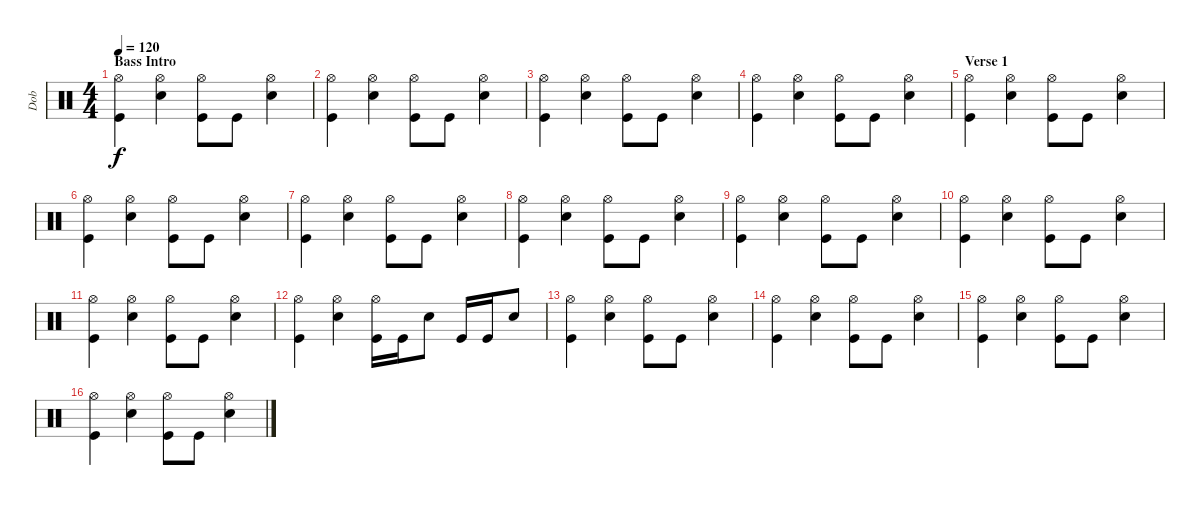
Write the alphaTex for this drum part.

\track ("Dob" "Dob") {instrument percussion}
\staff {score}
\articulation defaults
\ts (4 4)
\section ("" "Bass Intro")
\tempo 120
\clef neutral
\ks c
("Hi-Hat (open)" "Kick (hit)").4{dy f} ("Hi-Hat (open)" "Snare (hit) 2").4 ("Hi-Hat (open)" "Kick (hit)").8 "Kick (hit)".8 ("Hi-Hat (open)" "Snare (hit) 2").4 |
("Hi-Hat (open)" "Kick (hit)").4 ("Hi-Hat (open)" "Snare (hit) 2").4 ("Hi-Hat (open)" "Kick (hit)").8 "Kick (hit)".8 ("Hi-Hat (open)" "Snare (hit) 2").4 |
("Hi-Hat (open)" "Kick (hit)").4 ("Hi-Hat (open)" "Snare (hit) 2").4 ("Hi-Hat (open)" "Kick (hit)").8 "Kick (hit)".8 ("Hi-Hat (open)" "Snare (hit) 2").4 |
("Hi-Hat (open)" "Kick (hit)").4 ("Hi-Hat (open)" "Snare (hit) 2").4 ("Hi-Hat (open)" "Kick (hit)").8 "Kick (hit)".8 ("Hi-Hat (open)" "Snare (hit) 2").4 |
\section ("" "Verse 1")
("Hi-Hat (open)" "Kick (hit)").4 ("Hi-Hat (open)" "Snare (hit) 2").4 ("Hi-Hat (open)" "Kick (hit)").8 "Kick (hit)".8 ("Hi-Hat (open)" "Snare (hit) 2").4 |
("Hi-Hat (open)" "Kick (hit)").4 ("Hi-Hat (open)" "Snare (hit) 2").4 ("Hi-Hat (open)" "Kick (hit)").8 "Kick (hit)".8 ("Hi-Hat (open)" "Snare (hit) 2").4 |
("Hi-Hat (open)" "Kick (hit)").4 ("Hi-Hat (open)" "Snare (hit) 2").4 ("Hi-Hat (open)" "Kick (hit)").8 "Kick (hit)".8 ("Hi-Hat (open)" "Snare (hit) 2").4 |
("Hi-Hat (open)" "Kick (hit)").4 ("Hi-Hat (open)" "Snare (hit) 2").4 ("Hi-Hat (open)" "Kick (hit)").8 "Kick (hit)".8 ("Hi-Hat (open)" "Snare (hit) 2").4 |
("Hi-Hat (open)" "Kick (hit)").4 ("Hi-Hat (open)" "Snare (hit) 2").4 ("Hi-Hat (open)" "Kick (hit)").8 "Kick (hit)".8 ("Hi-Hat (open)" "Snare (hit) 2").4 |
("Hi-Hat (open)" "Kick (hit)").4 ("Hi-Hat (open)" "Snare (hit) 2").4 ("Hi-Hat (open)" "Kick (hit)").8 "Kick (hit)".8 ("Hi-Hat (open)" "Snare (hit) 2").4 |
("Hi-Hat (open)" "Kick (hit)").4 ("Hi-Hat (open)" "Snare (hit) 2").4 ("Hi-Hat (open)" "Kick (hit)").8 "Kick (hit)".8 ("Hi-Hat (open)" "Snare (hit) 2").4 |
("Hi-Hat (open)" "Kick (hit)").4 ("Hi-Hat (open)" "Snare (hit) 2").4 ("Hi-Hat (open)" "Kick (hit)").16 "Kick (hit)".16 "Snare (hit) 2".8 "Kick (hit)".16 "Kick (hit)".16 "Snare (hit) 2".8 |
("Hi-Hat (open)" "Kick (hit)").4 ("Hi-Hat (open)" "Snare (hit) 2").4 ("Hi-Hat (open)" "Kick (hit)").8 "Kick (hit)".8 ("Hi-Hat (open)" "Snare (hit) 2").4 |
("Hi-Hat (open)" "Kick (hit)").4 ("Hi-Hat (open)" "Snare (hit) 2").4 ("Hi-Hat (open)" "Kick (hit)").8 "Kick (hit)".8 ("Hi-Hat (open)" "Snare (hit) 2").4 |
("Hi-Hat (open)" "Kick (hit)").4 ("Hi-Hat (open)" "Snare (hit) 2").4 ("Hi-Hat (open)" "Kick (hit)").8 "Kick (hit)".8 ("Hi-Hat (open)" "Snare (hit) 2").4 |
("Hi-Hat (open)" "Kick (hit)").4 ("Hi-Hat (open)" "Snare (hit) 2").4 ("Hi-Hat (open)" "Kick (hit)").8 "Kick (hit)".8 ("Hi-Hat (open)" "Snare (hit) 2").4
